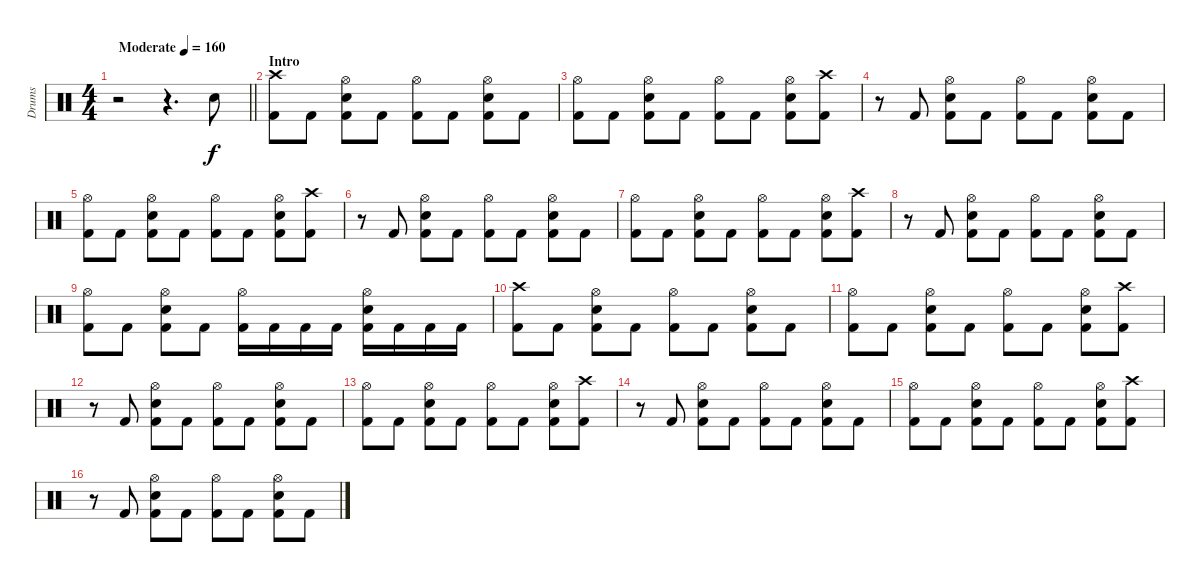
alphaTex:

\track ("Drums" "Drums") {instrument percussion}
\staff {score}
\articulation defaults
\ts (4 4)
\tempo (160 "Moderate")
\clef neutral
\barLineRight lightlight
\ks c
r.2{dy f} r.4{d} "Electric Snare (hit)".8 |
\section ("" "Intro")
("Crash high (hit)" "Kick (hit) 2").8 "Kick (hit) 2".8 ("Hi-Hat (open)" "Electric Snare (hit)" "Kick (hit) 2").8 "Kick (hit) 2".8 ("Hi-Hat (open)" "Kick (hit) 2").8 "Kick (hit) 2".8 ("Hi-Hat (open)" "Electric Snare (hit)" "Kick (hit) 2").8 "Kick (hit) 2".8 |
("Hi-Hat (open)" "Kick (hit) 2").8 "Kick (hit) 2".8 ("Hi-Hat (open)" "Electric Snare (hit)" "Kick (hit) 2").8 "Kick (hit) 2".8 ("Hi-Hat (open)" "Kick (hit) 2").8 "Kick (hit) 2".8 ("Hi-Hat (open)" "Electric Snare (hit)" "Kick (hit) 2").8 ("Crash high (hit)" "Kick (hit) 2").8 |
r.8 "Kick (hit) 2".8 ("Hi-Hat (open)" "Electric Snare (hit)" "Kick (hit) 2").8 "Kick (hit) 2".8 ("Hi-Hat (open)" "Kick (hit) 2").8 "Kick (hit) 2".8 ("Hi-Hat (open)" "Electric Snare (hit)" "Kick (hit) 2").8 "Kick (hit) 2".8 |
("Hi-Hat (open)" "Kick (hit) 2").8 "Kick (hit) 2".8 ("Hi-Hat (open)" "Electric Snare (hit)" "Kick (hit) 2").8 "Kick (hit) 2".8 ("Hi-Hat (open)" "Kick (hit) 2").8 "Kick (hit) 2".8 ("Hi-Hat (open)" "Electric Snare (hit)" "Kick (hit) 2").8 ("Crash high (hit)" "Kick (hit) 2").8 |
r.8 "Kick (hit) 2".8 ("Hi-Hat (open)" "Electric Snare (hit)" "Kick (hit) 2").8 "Kick (hit) 2".8 ("Hi-Hat (open)" "Kick (hit) 2").8 "Kick (hit) 2".8 ("Hi-Hat (open)" "Electric Snare (hit)" "Kick (hit) 2").8 "Kick (hit) 2".8 |
("Hi-Hat (open)" "Kick (hit) 2").8 "Kick (hit) 2".8 ("Hi-Hat (open)" "Electric Snare (hit)" "Kick (hit) 2").8 "Kick (hit) 2".8 ("Hi-Hat (open)" "Kick (hit) 2").8 "Kick (hit) 2".8 ("Hi-Hat (open)" "Electric Snare (hit)" "Kick (hit) 2").8 ("Crash high (hit)" "Kick (hit) 2").8 |
r.8 "Kick (hit) 2".8 ("Hi-Hat (open)" "Electric Snare (hit)" "Kick (hit) 2").8 "Kick (hit) 2".8 ("Hi-Hat (open)" "Kick (hit) 2").8 "Kick (hit) 2".8 ("Hi-Hat (open)" "Electric Snare (hit)" "Kick (hit) 2").8 "Kick (hit) 2".8 |
("Hi-Hat (open)" "Kick (hit) 2").8 "Kick (hit) 2".8 ("Hi-Hat (open)" "Electric Snare (hit)" "Kick (hit) 2").8 "Kick (hit) 2".8 ("Hi-Hat (open)" "Kick (hit) 2").16 "Kick (hit) 2".16 "Kick (hit) 2".16 "Kick (hit) 2".16 ("Hi-Hat (open)" "Electric Snare (hit)" "Kick (hit) 2").16 "Kick (hit) 2".16 "Kick (hit) 2".16 "Kick (hit) 2".16 |
("Crash high (hit)" "Kick (hit) 2").8 "Kick (hit) 2".8 ("Hi-Hat (open)" "Electric Snare (hit)" "Kick (hit) 2").8 "Kick (hit) 2".8 ("Hi-Hat (open)" "Kick (hit) 2").8 "Kick (hit) 2".8 ("Hi-Hat (open)" "Electric Snare (hit)" "Kick (hit) 2").8 "Kick (hit) 2".8 |
("Hi-Hat (open)" "Kick (hit) 2").8 "Kick (hit) 2".8 ("Hi-Hat (open)" "Electric Snare (hit)" "Kick (hit) 2").8 "Kick (hit) 2".8 ("Hi-Hat (open)" "Kick (hit) 2").8 "Kick (hit) 2".8 ("Hi-Hat (open)" "Electric Snare (hit)" "Kick (hit) 2").8 ("Crash high (hit)" "Kick (hit) 2").8 |
r.8 "Kick (hit) 2".8 ("Hi-Hat (open)" "Electric Snare (hit)" "Kick (hit) 2").8 "Kick (hit) 2".8 ("Hi-Hat (open)" "Kick (hit) 2").8 "Kick (hit) 2".8 ("Hi-Hat (open)" "Electric Snare (hit)" "Kick (hit) 2").8 "Kick (hit) 2".8 |
("Hi-Hat (open)" "Kick (hit) 2").8 "Kick (hit) 2".8 ("Hi-Hat (open)" "Electric Snare (hit)" "Kick (hit) 2").8 "Kick (hit) 2".8 ("Hi-Hat (open)" "Kick (hit) 2").8 "Kick (hit) 2".8 ("Hi-Hat (open)" "Electric Snare (hit)" "Kick (hit) 2").8 ("Crash high (hit)" "Kick (hit) 2").8 |
r.8 "Kick (hit) 2".8 ("Hi-Hat (open)" "Electric Snare (hit)" "Kick (hit) 2").8 "Kick (hit) 2".8 ("Hi-Hat (open)" "Kick (hit) 2").8 "Kick (hit) 2".8 ("Hi-Hat (open)" "Electric Snare (hit)" "Kick (hit) 2").8 "Kick (hit) 2".8 |
("Hi-Hat (open)" "Kick (hit) 2").8 "Kick (hit) 2".8 ("Hi-Hat (open)" "Electric Snare (hit)" "Kick (hit) 2").8 "Kick (hit) 2".8 ("Hi-Hat (open)" "Kick (hit) 2").8 "Kick (hit) 2".8 ("Hi-Hat (open)" "Electric Snare (hit)" "Kick (hit) 2").8 ("Crash high (hit)" "Kick (hit) 2").8 |
r.8 "Kick (hit) 2".8 ("Hi-Hat (open)" "Electric Snare (hit)" "Kick (hit) 2").8 "Kick (hit) 2".8 ("Hi-Hat (open)" "Kick (hit) 2").8 "Kick (hit) 2".8 ("Hi-Hat (open)" "Electric Snare (hit)" "Kick (hit) 2").8 "Kick (hit) 2".8
